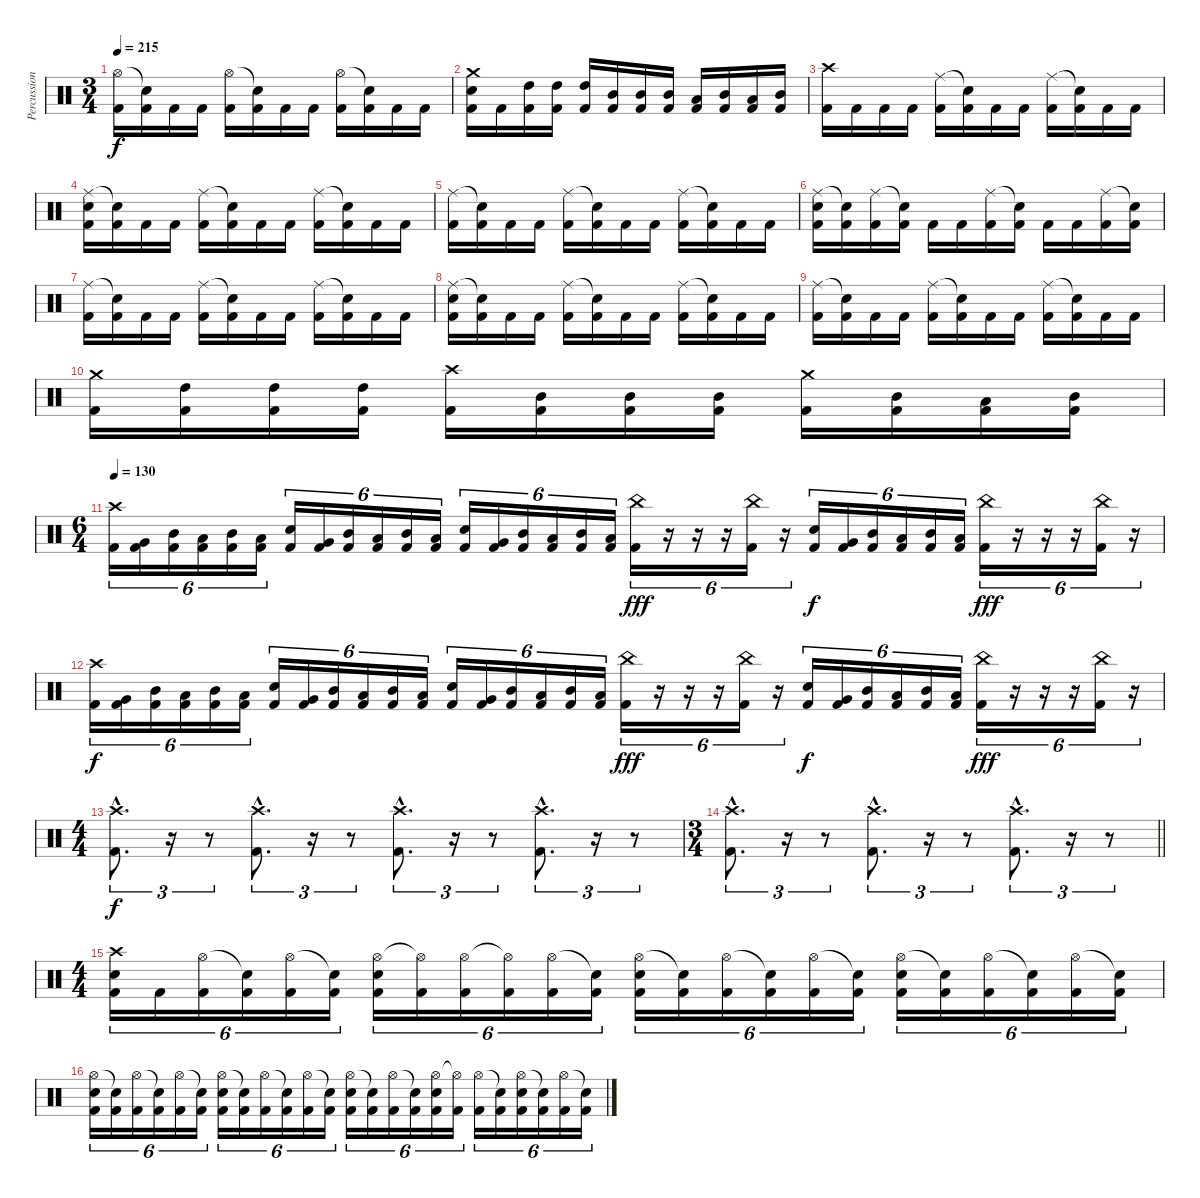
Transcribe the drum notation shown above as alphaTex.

\track ("Percussion" "Percussion") {instrument percussion}
\staff {score}
\articulation defaults
\ts (3 4)
\tempo 215
\clef neutral
\ks c
("Hi-Hat (open)" "Kick (hit) 2").16{dy f} ("Snare (hit)"{t} "Kick (hit) 2").16 "Kick (hit) 2".16 "Kick (hit) 2".16 ("Hi-Hat (open)" "Kick (hit) 2").16 ("Snare (hit)"{t} "Kick (hit) 2").16 "Kick (hit) 2".16 "Kick (hit) 2".16 ("Hi-Hat (open)" "Kick (hit) 2").16 ("Snare (hit)"{t} "Kick (hit) 2").16 "Kick (hit) 2".16 "Kick (hit) 2".16 |
("Crash medium (hit)" "Snare (hit) 2" "Kick (hit) 2").16 "Kick (hit) 2".16 ("High Tom (hit)" "Kick (hit) 2").16 ("High Tom (hit)" "Kick (hit) 2").16 ("High Tom (hit)" "Kick (hit) 2").16 ("Mid Tom (hit)" "Kick (hit) 2").16 ("Mid Tom (hit)" "Kick (hit) 2").16 ("Mid Tom (hit)" "Kick (hit) 2").16 ("Low Tom (hit)" "Kick (hit) 2").16 ("Mid Tom (hit)" "Kick (hit) 2").16 ("Low Tom (hit)" "Kick (hit) 2").16 ("Mid Tom (hit)" "Kick (hit) 2").16 |
("Crash high (hit)" "Kick (hit) 2").16 "Kick (hit) 2".16 "Kick (hit) 2".16 "Kick (hit) 2".16 ("Ride (middle)" "Kick (hit) 2").16 ("Snare (hit)"{t} "Kick (hit) 2").16 "Kick (hit) 2".16 "Kick (hit) 2".16 ("Ride (middle)" "Kick (hit) 2").16 ("Snare (hit)"{t} "Kick (hit) 2").16 "Kick (hit) 2".16 "Kick (hit) 2".16 |
("Ride (middle)" "Snare (hit) 2" "Kick (hit) 2").16 ("Snare (hit)"{t} "Kick (hit) 2").16 "Kick (hit) 2".16 "Kick (hit) 2".16 ("Ride (middle)" "Kick (hit) 2").16 ("Snare (hit)"{t} "Kick (hit) 2").16 "Kick (hit) 2".16 "Kick (hit) 2".16 ("Ride (middle)" "Kick (hit) 2").16 ("Snare (hit)"{t} "Kick (hit) 2").16 "Kick (hit) 2".16 "Kick (hit) 2".16 |
("Ride (middle)" "Kick (hit) 2").16 ("Snare (hit)"{t} "Kick (hit) 2").16 "Kick (hit) 2".16 "Kick (hit) 2".16 ("Ride (middle)" "Kick (hit) 2").16 ("Snare (hit)"{t} "Kick (hit) 2").16 "Kick (hit) 2".16 "Kick (hit) 2".16 ("Ride (middle)" "Kick (hit) 2").16 ("Snare (hit)"{t} "Kick (hit) 2").16 "Kick (hit) 2".16 "Kick (hit) 2".16 |
("Ride (middle)" "Snare (hit) 2" "Kick (hit) 2").16 ("Snare (hit)"{t} "Kick (hit) 2").16 ("Ride (middle)" "Kick (hit) 2").16 ("Snare (hit)"{t} "Kick (hit) 2").16 "Kick (hit) 2".16 "Kick (hit) 2".16 ("Ride (middle)" "Kick (hit) 2").16 ("Snare (hit)"{t} "Kick (hit) 2").16 "Kick (hit) 2".16 "Kick (hit) 2".16 ("Ride (middle)" "Kick (hit) 2").16 ("Snare (hit)"{t} "Kick (hit) 2").16 |
("Ride (middle)" "Kick (hit) 2").16 ("Snare (hit)"{t} "Kick (hit) 2").16 "Kick (hit) 2".16 "Kick (hit) 2".16 ("Ride (middle)" "Kick (hit) 2").16 ("Snare (hit)"{t} "Kick (hit) 2").16 "Kick (hit) 2".16 "Kick (hit) 2".16 ("Ride (middle)" "Kick (hit) 2").16 ("Snare (hit)"{t} "Kick (hit) 2").16 "Kick (hit) 2".16 "Kick (hit) 2".16 |
("Ride (middle)" "Snare (hit) 2" "Kick (hit) 2").16 ("Snare (hit)"{t} "Kick (hit) 2").16 "Kick (hit) 2".16 "Kick (hit) 2".16 ("Ride (middle)" "Kick (hit) 2").16 ("Snare (hit)"{t} "Kick (hit) 2").16 "Kick (hit) 2".16 "Kick (hit) 2".16 ("Ride (middle)" "Kick (hit) 2").16 ("Snare (hit)"{t} "Kick (hit) 2").16 "Kick (hit) 2".16 "Kick (hit) 2".16 |
("Ride (middle)" "Kick (hit) 2").16 ("Snare (hit)"{t} "Kick (hit) 2").16 "Kick (hit) 2".16 "Kick (hit) 2".16 ("Ride (middle)" "Kick (hit) 2").16 ("Snare (hit)"{t} "Kick (hit) 2").16 "Kick (hit) 2".16 "Kick (hit) 2".16 ("Ride (middle)" "Kick (hit) 2").16 ("Snare (hit)"{t} "Kick (hit) 2").16 "Kick (hit) 2".16 "Kick (hit) 2".16 |
("Crash medium (hit)" "Kick (hit) 2").16 ("High Tom (hit)" "Kick (hit) 2").16 ("High Tom (hit)" "Kick (hit) 2").16 ("High Tom (hit)" "Kick (hit) 2").16 ("Crash high (hit)" "Kick (hit) 2").16 ("Mid Tom (hit)" "Kick (hit) 2").16 ("Mid Tom (hit)" "Kick (hit) 2").16 ("Mid Tom (hit)" "Kick (hit) 2").16 ("Crash medium (hit)" "Kick (hit) 2").16 ("Mid Tom (hit)" "Kick (hit) 2").16 ("Low Tom (hit)" "Kick (hit) 2").16 ("Mid Tom (hit)" "Kick (hit) 2").16 |
\ts (6 4)
\tempo 130
("Crash high (hit)" "Kick (hit) 2").16{tu (6 4)} ("Very Low Tom (hit)" "Kick (hit) 2").16{tu (6 4)} ("Mid Tom (hit)" "Kick (hit) 2").16{tu (6 4)} ("Low Tom (hit)" "Kick (hit) 2").16{tu (6 4)} ("Mid Tom (hit)" "Kick (hit) 2").16{tu (6 4)} ("Low Tom (hit)" "Kick (hit) 2").16{tu (6 4)} ("Snare (hit) 2" "Kick (hit) 2").16{tu (6 4)} ("Very Low Tom (hit)" "Kick (hit) 2").16{tu (6 4)} ("Mid Tom (hit)" "Kick (hit) 2").16{tu (6 4)} ("Low Tom (hit)" "Kick (hit) 2").16{tu (6 4)} ("Mid Tom (hit)" "Kick (hit) 2").16{tu (6 4)} ("Low Tom (hit)" "Kick (hit) 2").16{tu (6 4)} ("Snare (hit) 2" "Kick (hit) 2").16{tu (6 4)} ("Very Low Tom (hit)" "Kick (hit) 2").16{tu (6 4)} ("Mid Tom (hit)" "Kick (hit) 2").16{tu (6 4)} ("Low Tom (hit)" "Kick (hit) 2").16{tu (6 4)} ("Mid Tom (hit)" "Kick (hit) 2").16{tu (6 4)} ("Low Tom (hit)" "Kick (hit) 2").16{tu (6 4)} ("China (hit)" "Kick (hit) 2").16{tu (6 4) dy fff} r.16{tu (6 4)} r.16{tu (6 4)} r.16{tu (6 4)} ("China (hit)" "Kick (hit) 2").16{tu (6 4)} r.16{tu (6 4)} ("Snare (hit) 2" "Kick (hit) 2").16{tu (6 4) dy f} ("Very Low Tom (hit)" "Kick (hit) 2").16{tu (6 4)} ("Mid Tom (hit)" "Kick (hit) 2").16{tu (6 4)} ("Low Tom (hit)" "Kick (hit) 2").16{tu (6 4)} ("Mid Tom (hit)" "Kick (hit) 2").16{tu (6 4)} ("Low Tom (hit)" "Kick (hit) 2").16{tu (6 4)} ("China (hit)" "Kick (hit) 2").16{tu (6 4) dy fff} r.16{tu (6 4)} r.16{tu (6 4)} r.16{tu (6 4)} ("China (hit)" "Kick (hit) 2").16{tu (6 4)} r.16{tu (6 4)} |
("Crash high (hit)" "Kick (hit) 2").16{tu (6 4) dy f} ("Very Low Tom (hit)" "Kick (hit) 2").16{tu (6 4)} ("Mid Tom (hit)" "Kick (hit) 2").16{tu (6 4)} ("Low Tom (hit)" "Kick (hit) 2").16{tu (6 4)} ("Mid Tom (hit)" "Kick (hit) 2").16{tu (6 4)} ("Low Tom (hit)" "Kick (hit) 2").16{tu (6 4)} ("Snare (hit) 2" "Kick (hit) 2").16{tu (6 4)} ("Very Low Tom (hit)" "Kick (hit) 2").16{tu (6 4)} ("Mid Tom (hit)" "Kick (hit) 2").16{tu (6 4)} ("Low Tom (hit)" "Kick (hit) 2").16{tu (6 4)} ("Mid Tom (hit)" "Kick (hit) 2").16{tu (6 4)} ("Low Tom (hit)" "Kick (hit) 2").16{tu (6 4)} ("Snare (hit) 2" "Kick (hit) 2").16{tu (6 4)} ("Very Low Tom (hit)" "Kick (hit) 2").16{tu (6 4)} ("Mid Tom (hit)" "Kick (hit) 2").16{tu (6 4)} ("Low Tom (hit)" "Kick (hit) 2").16{tu (6 4)} ("Mid Tom (hit)" "Kick (hit) 2").16{tu (6 4)} ("Low Tom (hit)" "Kick (hit) 2").16{tu (6 4)} ("China (hit)" "Kick (hit) 2").16{tu (6 4) dy fff} r.16{tu (6 4)} r.16{tu (6 4)} r.16{tu (6 4)} ("China (hit)" "Kick (hit) 2").16{tu (6 4)} r.16{tu (6 4)} ("Snare (hit) 2" "Kick (hit) 2").16{tu (6 4) dy f} ("Very Low Tom (hit)" "Kick (hit) 2").16{tu (6 4)} ("Mid Tom (hit)" "Kick (hit) 2").16{tu (6 4)} ("Low Tom (hit)" "Kick (hit) 2").16{tu (6 4)} ("Mid Tom (hit)" "Kick (hit) 2").16{tu (6 4)} ("Low Tom (hit)" "Kick (hit) 2").16{tu (6 4)} ("China (hit)" "Kick (hit) 2").16{tu (6 4) dy fff} r.16{tu (6 4)} r.16{tu (6 4)} r.16{tu (6 4)} ("China (hit)" "Kick (hit) 2").16{tu (6 4)} r.16{tu (6 4)} |
\ts (4 4)
("Crash high (hit)"{hac} "Kick (hit) 2"{hac}).8{d tu (3 2) dy f} r.16{tu (3 2) volume 0} r.8{tu (3 2)} ("Crash high (hit)"{hac} "Kick (hit) 2"{hac}).8{d tu (3 2) volume 16} r.16{tu (3 2) volume 0} r.8{tu (3 2)} ("Crash high (hit)"{hac} "Kick (hit) 2"{hac}).8{d tu (3 2) volume 16} r.16{tu (3 2) volume 0} r.8{tu (3 2)} ("Crash high (hit)"{hac} "Kick (hit) 2"{hac}).8{d tu (3 2) volume 16} r.16{tu (3 2) volume 0} r.8{tu (3 2)} |
\ts (3 4)
\barLineRight lightlight
("Crash high (hit)"{hac} "Kick (hit) 2"{hac}).8{d tu (3 2) volume 16} r.16{tu (3 2) volume 0} r.8{tu (3 2)} ("Crash high (hit)"{hac} "Kick (hit) 2"{hac}).8{d tu (3 2) volume 16} r.16{tu (3 2) volume 0} r.8{tu (3 2)} ("Crash high (hit)"{hac} "Kick (hit) 2"{hac}).8{d tu (3 2) volume 16} r.16{tu (3 2) volume 0} r.8{tu (3 2)} |
\ts (4 4)
("Crash high (hit)" "Snare (hit) 2" "Kick (hit) 2").16{tu (6 4) volume 15} "Kick (hit) 2".16{tu (6 4)} ("Hi-Hat (open)" "Kick (hit) 2").16{tu (6 4)} ("Snare (hit)"{t} "Kick (hit) 2").16{tu (6 4)} ("Hi-Hat (open)" "Kick (hit) 2").16{tu (6 4)} ("Snare (hit)"{t} "Kick (hit) 2").16{tu (6 4)} ("Hi-Hat (open)" "Snare (hit) 2" "Kick (hit) 2").16{tu (6 4)} ("Hi-Hat (open)"{t} "Kick (hit) 2").16{tu (6 4)} ("Hi-Hat (open)" "Kick (hit) 2").16{tu (6 4)} ("Hi-Hat (open)"{t} "Kick (hit) 2").16{tu (6 4)} ("Hi-Hat (open)" "Kick (hit) 2").16{tu (6 4)} ("Snare (hit)"{t} "Kick (hit) 2").16{tu (6 4)} ("Hi-Hat (open)" "Snare (hit) 2" "Kick (hit) 2").16{tu (6 4)} ("Snare (hit)"{t} "Kick (hit) 2").16{tu (6 4)} ("Hi-Hat (open)" "Kick (hit) 2").16{tu (6 4)} ("Snare (hit)"{t} "Kick (hit) 2").16{tu (6 4)} ("Hi-Hat (open)" "Kick (hit) 2").16{tu (6 4)} ("Snare (hit)"{t} "Kick (hit) 2").16{tu (6 4)} ("Hi-Hat (open)" "Snare (hit) 2" "Kick (hit) 2").16{tu (6 4)} ("Snare (hit)"{t} "Kick (hit) 2").16{tu (6 4)} ("Hi-Hat (open)" "Kick (hit) 2").16{tu (6 4)} ("Snare (hit)"{t} "Kick (hit) 2").16{tu (6 4)} ("Hi-Hat (open)" "Kick (hit) 2").16{tu (6 4)} ("Snare (hit)"{t} "Kick (hit) 2").16{tu (6 4)} |
("Hi-Hat (open)" "Snare (hit) 2" "Kick (hit) 2").16{tu (6 4)} ("Snare (hit)"{t} "Kick (hit) 2").16{tu (6 4)} ("Hi-Hat (open)" "Kick (hit) 2").16{tu (6 4)} ("Snare (hit)"{t} "Kick (hit) 2").16{tu (6 4)} ("Hi-Hat (open)" "Kick (hit) 2").16{tu (6 4)} ("Snare (hit)"{t} "Kick (hit) 2").16{tu (6 4)} ("Hi-Hat (open)" "Snare (hit) 2" "Kick (hit) 2").16{tu (6 4)} ("Snare (hit)"{t} "Kick (hit) 2").16{tu (6 4)} ("Hi-Hat (open)" "Kick (hit) 2").16{tu (6 4)} ("Snare (hit)"{t} "Kick (hit) 2").16{tu (6 4)} ("Hi-Hat (open)" "Kick (hit) 2").16{tu (6 4)} ("Snare (hit)"{t} "Kick (hit) 2").16{tu (6 4)} ("Hi-Hat (open)" "Snare (hit) 2" "Kick (hit) 2").16{tu (6 4)} ("Snare (hit)"{t} "Kick (hit) 2").16{tu (6 4)} ("Hi-Hat (open)" "Kick (hit) 2").16{tu (6 4)} ("Snare (hit)"{t} "Kick (hit) 2").16{tu (6 4)} ("Hi-Hat (open)" "Snare (hit) 2" "Kick (hit) 2").16{tu (6 4)} ("Hi-Hat (open)"{t} "Kick (hit) 2").16{tu (6 4)} ("Hi-Hat (open)" "Kick (hit) 2").16{tu (6 4)} ("Snare (hit)"{t} "Kick (hit) 2").16{tu (6 4)} ("Hi-Hat (open)" "Snare (hit) 2" "Kick (hit) 2").16{tu (6 4)} ("Snare (hit)"{t} "Kick (hit) 2").16{tu (6 4)} ("Hi-Hat (open)" "Kick (hit) 2").16{tu (6 4)} ("Snare (hit)"{t} "Kick (hit) 2").16{tu (6 4)}
